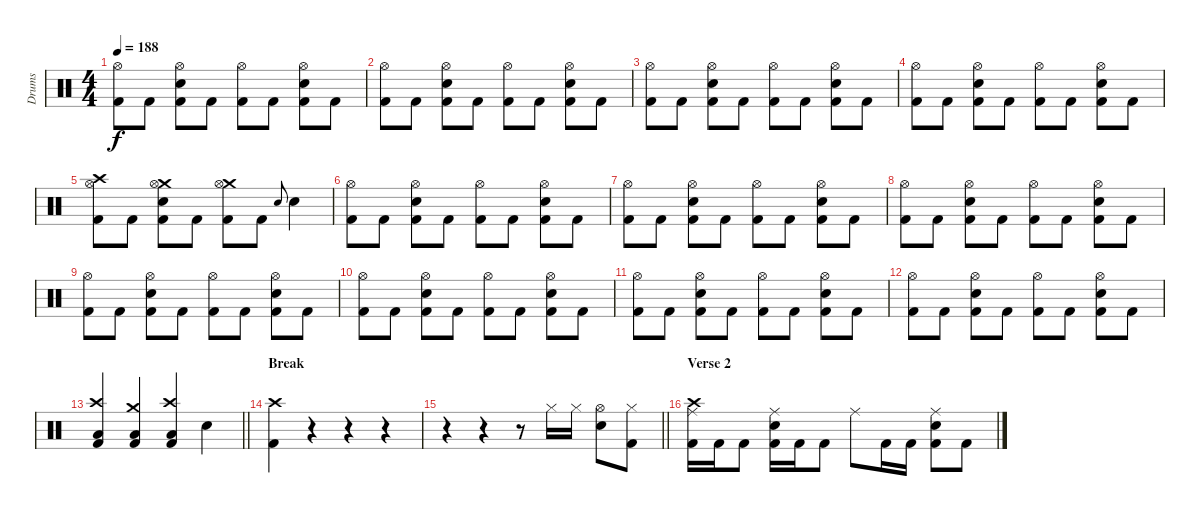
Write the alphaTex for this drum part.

\track ("Drums" "Drums") {instrument percussion}
\staff {score}
\articulation defaults
\ts (4 4)
\tempo 188
\clef neutral
\ks c
("Hi-Hat (open)" "Kick (hit) 2").8{dy f} "Kick (hit) 2".8 ("Hi-Hat (open)" "Snare (hit) 2" "Kick (hit) 2").8 "Kick (hit) 2".8 ("Hi-Hat (open)" "Kick (hit) 2").8 "Kick (hit) 2".8 ("Hi-Hat (open)" "Snare (hit) 2" "Kick (hit) 2").8 "Kick (hit) 2".8 |
("Hi-Hat (open)" "Kick (hit) 2").8 "Kick (hit) 2".8 ("Hi-Hat (open)" "Snare (hit) 2" "Kick (hit) 2").8 "Kick (hit) 2".8 ("Hi-Hat (open)" "Kick (hit) 2").8 "Kick (hit) 2".8 ("Hi-Hat (open)" "Snare (hit) 2" "Kick (hit) 2").8 "Kick (hit) 2".8 |
("Hi-Hat (open)" "Kick (hit) 2").8 "Kick (hit) 2".8 ("Hi-Hat (open)" "Snare (hit) 2" "Kick (hit) 2").8 "Kick (hit) 2".8 ("Hi-Hat (open)" "Kick (hit) 2").8 "Kick (hit) 2".8 ("Hi-Hat (open)" "Snare (hit) 2" "Kick (hit) 2").8 "Kick (hit) 2".8 |
("Hi-Hat (open)" "Kick (hit) 2").8 "Kick (hit) 2".8 ("Hi-Hat (open)" "Snare (hit) 2" "Kick (hit) 2").8 "Kick (hit) 2".8 ("Hi-Hat (open)" "Kick (hit) 2").8 "Kick (hit) 2".8 ("Hi-Hat (open)" "Snare (hit) 2" "Kick (hit) 2").8 "Kick (hit) 2".8 |
("Crash high (hit)" "Hi-Hat (open)" "Kick (hit) 2").8 "Kick (hit) 2".8 ("Crash medium (hit)" "Hi-Hat (open)" "Snare (hit) 2" "Kick (hit) 2").8 "Kick (hit) 2".8 ("Crash medium (hit)" "Hi-Hat (open)" "Kick (hit) 2").8 "Kick (hit) 2".8 "Snare (hit) 2".8{gr onbeat} "Snare (hit) 2".4 |
("Hi-Hat (open)" "Kick (hit) 2").8 "Kick (hit) 2".8 ("Hi-Hat (open)" "Snare (hit) 2" "Kick (hit) 2").8 "Kick (hit) 2".8 ("Hi-Hat (open)" "Kick (hit) 2").8 "Kick (hit) 2".8 ("Hi-Hat (open)" "Snare (hit) 2" "Kick (hit) 2").8 "Kick (hit) 2".8 |
("Hi-Hat (open)" "Kick (hit) 2").8 "Kick (hit) 2".8 ("Hi-Hat (open)" "Snare (hit) 2" "Kick (hit) 2").8 "Kick (hit) 2".8 ("Hi-Hat (open)" "Kick (hit) 2").8 "Kick (hit) 2".8 ("Hi-Hat (open)" "Snare (hit) 2" "Kick (hit) 2").8 "Kick (hit) 2".8 |
("Hi-Hat (open)" "Kick (hit) 2").8 "Kick (hit) 2".8 ("Hi-Hat (open)" "Snare (hit) 2" "Kick (hit) 2").8 "Kick (hit) 2".8 ("Hi-Hat (open)" "Kick (hit) 2").8 "Kick (hit) 2".8 ("Hi-Hat (open)" "Snare (hit) 2" "Kick (hit) 2").8 "Kick (hit) 2".8 |
("Hi-Hat (open)" "Kick (hit) 2").8 "Kick (hit) 2".8 ("Hi-Hat (open)" "Snare (hit) 2" "Kick (hit) 2").8 "Kick (hit) 2".8 ("Hi-Hat (open)" "Kick (hit) 2").8 "Kick (hit) 2".8 ("Hi-Hat (open)" "Snare (hit) 2" "Kick (hit) 2").8 "Kick (hit) 2".8 |
("Hi-Hat (open)" "Kick (hit) 2").8 "Kick (hit) 2".8 ("Hi-Hat (open)" "Snare (hit) 2" "Kick (hit) 2").8 "Kick (hit) 2".8 ("Hi-Hat (open)" "Kick (hit) 2").8 "Kick (hit) 2".8 ("Hi-Hat (open)" "Snare (hit) 2" "Kick (hit) 2").8 "Kick (hit) 2".8 |
("Hi-Hat (open)" "Kick (hit) 2").8 "Kick (hit) 2".8 ("Hi-Hat (open)" "Snare (hit) 2" "Kick (hit) 2").8 "Kick (hit) 2".8 ("Hi-Hat (open)" "Kick (hit) 2").8 "Kick (hit) 2".8 ("Hi-Hat (open)" "Snare (hit) 2" "Kick (hit) 2").8 "Kick (hit) 2".8 |
("Hi-Hat (open)" "Kick (hit) 2").8 "Kick (hit) 2".8 ("Hi-Hat (open)" "Snare (hit) 2" "Kick (hit) 2").8 "Kick (hit) 2".8 ("Hi-Hat (open)" "Kick (hit) 2").8 "Kick (hit) 2".8 ("Hi-Hat (open)" "Snare (hit) 2" "Kick (hit) 2").8 "Kick (hit) 2".8 |
\barLineRight lightlight
("Crash high (hit)" "Low Floor Tom (hit)" "Kick (hit) 2").4 ("Crash medium (hit)" "Low Floor Tom (hit)" "Kick (hit) 2").4 ("Crash high (hit)" "Low Floor Tom (hit)" "Kick (hit) 2").4 "Snare (hit) 2".4 |
\section ("" "Break")
("Crash high (hit)" "Kick (hit) 2").4 r.4 r.4 r.4 |
\barLineRight lightlight
r.4 r.4 r.8 "Hi-Hat (closed)".16 "Hi-Hat (closed)".16 ("Hi-Hat (open)" "Snare (hit) 2").8 ("Hi-Hat (closed)" "Kick (hit) 2").8 |
\section ("" "Verse 2")
("Crash high (hit)" "Ride (middle)" "Kick (hit) 2").16 "Kick (hit) 2".16 "Kick (hit) 2".8 ("Ride (middle)" "Snare (hit) 2" "Kick (hit) 2").16 "Kick (hit) 2".16 "Kick (hit) 2".8 "Ride (middle)".8 "Kick (hit) 2".16 "Kick (hit) 2".16 ("Ride (middle)" "Snare (hit) 2" "Kick (hit) 2").8 "Kick (hit) 2".8
